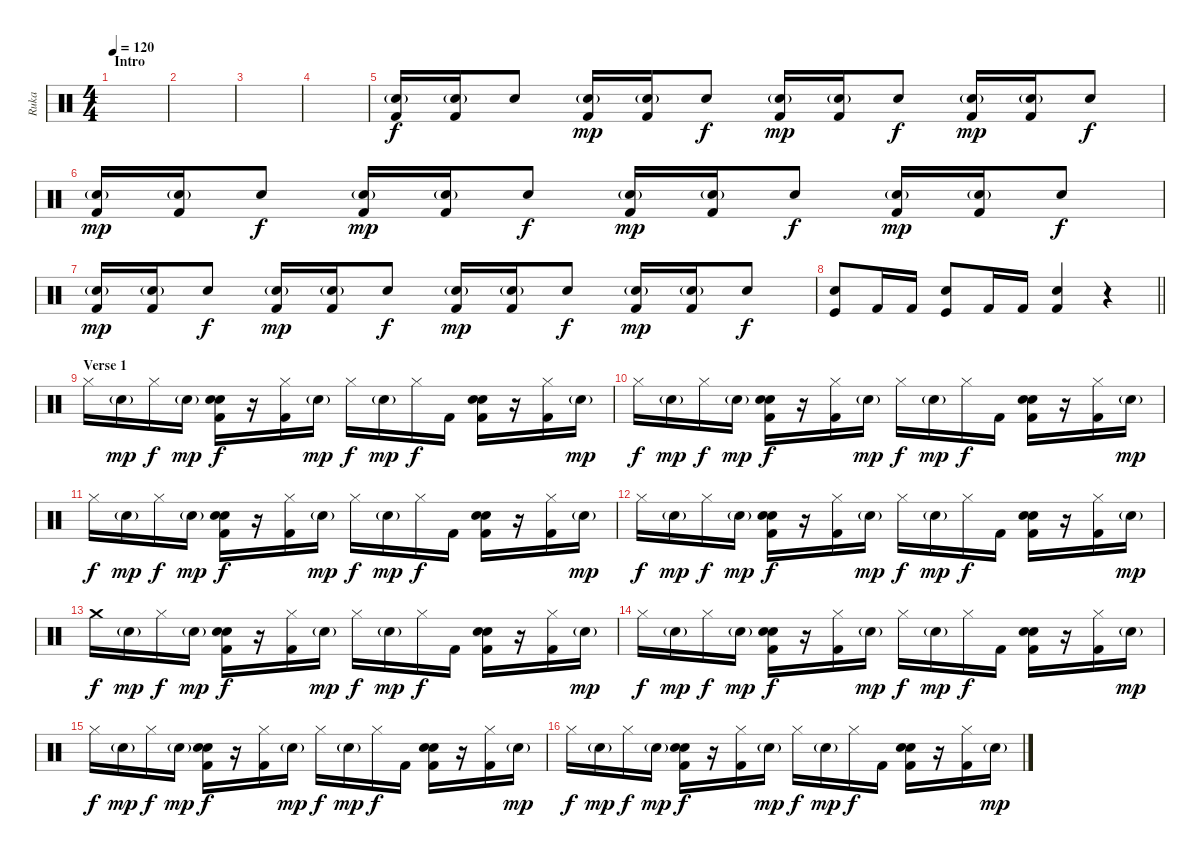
\track ("Ruka" "Ruka") {instrument percussion}
\staff {score}
\articulation defaults
\ts (4 4)
\section ("" "Intro")
\tempo 120
\clef neutral
\ks c
|
|
|
|
("Kick (hit) 2" "Snare (hit) 2"{g}).16 ("Kick (hit) 2" "Snare (hit) 2"{g}).16 "Snare (hit) 2".8{dy f} ("Kick (hit) 2" "Snare (hit) 2"{g}).16{dy mp} ("Kick (hit) 2" "Snare (hit) 2"{g}).16 "Snare (hit) 2".8{dy f} ("Kick (hit) 2" "Snare (hit) 2"{g}).16{dy mp} ("Kick (hit) 2" "Snare (hit) 2"{g}).16 "Snare (hit) 2".8{dy f} ("Kick (hit) 2" "Snare (hit) 2"{g}).16{dy mp} ("Kick (hit) 2" "Snare (hit) 2"{g}).16 "Snare (hit) 2".8{dy f} |
("Kick (hit) 2" "Snare (hit) 2"{g}).16{dy mp} ("Kick (hit) 2" "Snare (hit) 2"{g}).16 "Snare (hit) 2".8{dy f} ("Kick (hit) 2" "Snare (hit) 2"{g}).16{dy mp} ("Kick (hit) 2" "Snare (hit) 2"{g}).16 "Snare (hit) 2".8{dy f} ("Kick (hit) 2" "Snare (hit) 2"{g}).16{dy mp} ("Kick (hit) 2" "Snare (hit) 2"{g}).16 "Snare (hit) 2".8{dy f} ("Kick (hit) 2" "Snare (hit) 2"{g}).16{dy mp} ("Kick (hit) 2" "Snare (hit) 2"{g}).16 "Snare (hit) 2".8{dy f} |
("Kick (hit) 2" "Snare (hit) 2"{g}).16{dy mp} ("Kick (hit) 2" "Snare (hit) 2"{g}).16 "Snare (hit) 2".8{dy f} ("Kick (hit) 2" "Snare (hit) 2"{g}).16{dy mp} ("Kick (hit) 2" "Snare (hit) 2"{g}).16 "Snare (hit) 2".8{dy f} ("Kick (hit) 2" "Snare (hit) 2"{g}).16{dy mp} ("Kick (hit) 2" "Snare (hit) 2"{g}).16 "Snare (hit) 2".8{dy f} ("Kick (hit) 2" "Snare (hit) 2"{g}).16{dy mp} ("Kick (hit) 2" "Snare (hit) 2"{g}).16 "Snare (hit) 2".8{dy f} |
\barLineRight lightlight
("Kick (hit)" "Snare (hit) 2").8 "Kick (hit) 2".16 "Kick (hit) 2".16 ("Kick (hit)" "Snare (hit) 2").8 "Kick (hit) 2".16 "Kick (hit) 2".16 ("Kick (hit) 2" "Snare (hit) 2").4 r.4 |
\section ("" "Verse 1")
"Hi-Hat (closed)".16 "Snare (hit) 2"{g}.16{dy mp} "Hi-Hat (closed)".16{dy f} "Snare (hit) 2"{g}.16{dy mp} ("Kick (hit) 2" "Snare (hit) 2" "Snare (hit) 2").16{dy f} r.16 ("Kick (hit) 2" "Hi-Hat (closed)").16 "Snare (hit) 2"{g}.16{dy mp} "Hi-Hat (closed)".16{dy f} "Snare (hit) 2"{g}.16{dy mp} "Hi-Hat (closed)".16{dy f} "Kick (hit) 2".16 ("Kick (hit) 2" "Snare (hit) 2" "Snare (hit) 2").16 r.16 ("Kick (hit) 2" "Hi-Hat (closed)").16 "Snare (hit) 2"{g}.16{dy mp} |
"Hi-Hat (closed)".16{dy f} "Snare (hit) 2"{g}.16{dy mp} "Hi-Hat (closed)".16{dy f} "Snare (hit) 2"{g}.16{dy mp} ("Kick (hit) 2" "Snare (hit) 2" "Snare (hit) 2").16{dy f} r.16 ("Kick (hit) 2" "Hi-Hat (closed)").16 "Snare (hit) 2"{g}.16{dy mp} "Hi-Hat (closed)".16{dy f} "Snare (hit) 2"{g}.16{dy mp} "Hi-Hat (closed)".16{dy f} "Kick (hit) 2".16 ("Kick (hit) 2" "Snare (hit) 2" "Snare (hit) 2").16 r.16 ("Kick (hit) 2" "Hi-Hat (closed)").16 "Snare (hit) 2"{g}.16{dy mp} |
"Hi-Hat (closed)".16{dy f} "Snare (hit) 2"{g}.16{dy mp} "Hi-Hat (closed)".16{dy f} "Snare (hit) 2"{g}.16{dy mp} ("Kick (hit) 2" "Snare (hit) 2" "Snare (hit) 2").16{dy f} r.16 ("Kick (hit) 2" "Hi-Hat (closed)").16 "Snare (hit) 2"{g}.16{dy mp} "Hi-Hat (closed)".16{dy f} "Snare (hit) 2"{g}.16{dy mp} "Hi-Hat (closed)".16{dy f} "Kick (hit) 2".16 ("Kick (hit) 2" "Snare (hit) 2" "Snare (hit) 2").16 r.16 ("Kick (hit) 2" "Hi-Hat (closed)").16 "Snare (hit) 2"{g}.16{dy mp} |
"Hi-Hat (closed)".16{dy f} "Snare (hit) 2"{g}.16{dy mp} "Hi-Hat (closed)".16{dy f} "Snare (hit) 2"{g}.16{dy mp} ("Kick (hit) 2" "Snare (hit) 2" "Snare (hit) 2").16{dy f} r.16 ("Kick (hit) 2" "Hi-Hat (closed)").16 "Snare (hit) 2"{g}.16{dy mp} "Hi-Hat (closed)".16{dy f} "Snare (hit) 2"{g}.16{dy mp} "Hi-Hat (closed)".16{dy f} "Kick (hit) 2".16 ("Kick (hit) 2" "Snare (hit) 2" "Snare (hit) 2").16 r.16 ("Kick (hit) 2" "Hi-Hat (closed)").16 "Snare (hit) 2"{g}.16{dy mp} |
"Crash medium (hit)".16{dy f} "Snare (hit) 2"{g}.16{dy mp} "Hi-Hat (closed)".16{dy f} "Snare (hit) 2"{g}.16{dy mp} ("Kick (hit) 2" "Snare (hit) 2" "Snare (hit) 2").16{dy f} r.16 ("Kick (hit) 2" "Hi-Hat (closed)").16 "Snare (hit) 2"{g}.16{dy mp} "Hi-Hat (closed)".16{dy f} "Snare (hit) 2"{g}.16{dy mp} "Hi-Hat (closed)".16{dy f} "Kick (hit) 2".16 ("Kick (hit) 2" "Snare (hit) 2" "Snare (hit) 2").16 r.16 ("Kick (hit) 2" "Hi-Hat (closed)").16 "Snare (hit) 2"{g}.16{dy mp} |
"Hi-Hat (closed)".16{dy f} "Snare (hit) 2"{g}.16{dy mp} "Hi-Hat (closed)".16{dy f} "Snare (hit) 2"{g}.16{dy mp} ("Kick (hit) 2" "Snare (hit) 2" "Snare (hit) 2").16{dy f} r.16 ("Kick (hit) 2" "Hi-Hat (closed)").16 "Snare (hit) 2"{g}.16{dy mp} "Hi-Hat (closed)".16{dy f} "Snare (hit) 2"{g}.16{dy mp} "Hi-Hat (closed)".16{dy f} "Kick (hit) 2".16 ("Kick (hit) 2" "Snare (hit) 2" "Snare (hit) 2").16 r.16 ("Kick (hit) 2" "Hi-Hat (closed)").16 "Snare (hit) 2"{g}.16{dy mp} |
"Hi-Hat (closed)".16{dy f} "Snare (hit) 2"{g}.16{dy mp} "Hi-Hat (closed)".16{dy f} "Snare (hit) 2"{g}.16{dy mp} ("Kick (hit) 2" "Snare (hit) 2" "Snare (hit) 2").16{dy f} r.16 ("Kick (hit) 2" "Hi-Hat (closed)").16 "Snare (hit) 2"{g}.16{dy mp} "Hi-Hat (closed)".16{dy f} "Snare (hit) 2"{g}.16{dy mp} "Hi-Hat (closed)".16{dy f} "Kick (hit) 2".16 ("Kick (hit) 2" "Snare (hit) 2" "Snare (hit) 2").16 r.16 ("Kick (hit) 2" "Hi-Hat (closed)").16 "Snare (hit) 2"{g}.16{dy mp} |
"Hi-Hat (closed)".16{dy f} "Snare (hit) 2"{g}.16{dy mp} "Hi-Hat (closed)".16{dy f} "Snare (hit) 2"{g}.16{dy mp} ("Kick (hit) 2" "Snare (hit) 2" "Snare (hit) 2").16{dy f} r.16 ("Kick (hit) 2" "Hi-Hat (closed)").16 "Snare (hit) 2"{g}.16{dy mp} "Hi-Hat (closed)".16{dy f} "Snare (hit) 2"{g}.16{dy mp} "Hi-Hat (closed)".16{dy f} "Kick (hit) 2".16 ("Kick (hit) 2" "Snare (hit) 2" "Snare (hit) 2").16 r.16 ("Kick (hit) 2" "Hi-Hat (closed)").16 "Snare (hit) 2"{g}.16{dy mp}
